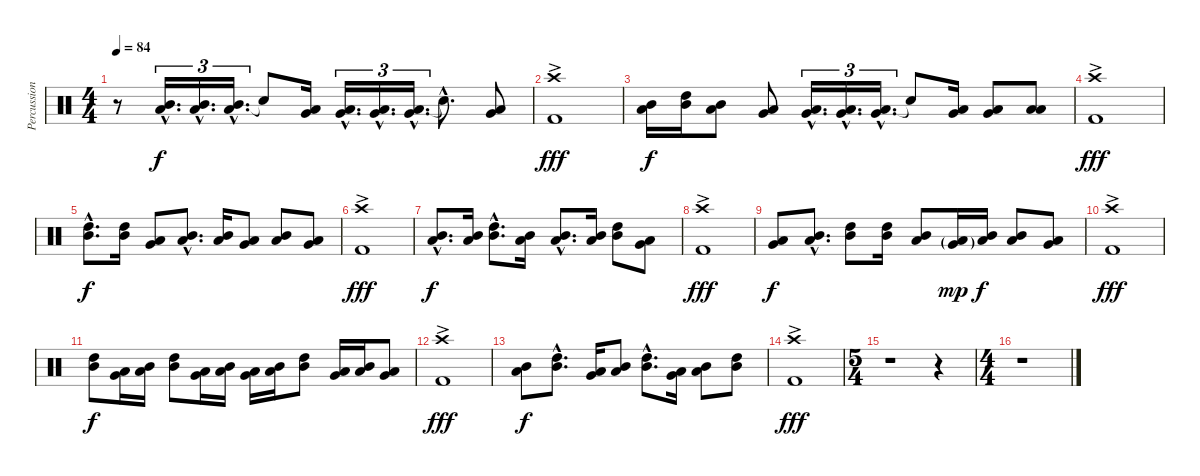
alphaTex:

\track ("Percussion" "Percussion") {instrument percussion}
\staff {score}
\articulation defaults
\ts (4 4)
\tempo 84
\clef neutral
\ks c
r.8{dy fff} ("Mid Tom (hit)" "Low Tom (hit)"{hac}).16{d tu (3 2) dy f} ("Mid Tom (hit)" "Low Tom (hit)"{hac}).16{d tu (3 2)} ("Mid Tom (hit)"{hac} "Low Tom (hit)"{hac}).16{d tu (3 2)} "Snare (hit)"{t}.8 ("Low Tom (hit)" "Very Low Tom (hit)").16 ("Low Tom (hit)"{hac} "Very Low Tom (hit)"{hac}).16{d tu (3 2)} ("Low Tom (hit)"{hac} "Very Low Tom (hit)"{hac}).16{d tu (3 2)} ("Low Tom (hit)"{hac} "Very Low Tom (hit)"{hac}).16{d tu (3 2)} "Snare (hit)"{hac t}.8{d} ("Very Low Tom (hit)" "Low Floor Tom (hit)").8 |
("Crash high (hit)"{ac} "Kick (hit) 2").1{dy fff} |
("Mid Tom (hit)" "Low Tom (hit)").16{dy f} ("High Tom (hit)" "Mid Tom (hit)").16 ("Mid Tom (hit)" "Low Tom (hit)").8 ("Low Tom (hit)" "Very Low Tom (hit)").8 ("Low Tom (hit)"{hac} "Very Low Tom (hit)"{hac}).16{d tu (3 2)} ("Low Tom (hit)"{hac} "Very Low Tom (hit)"{hac}).16{d tu (3 2)} ("Low Tom (hit)"{hac} "Very Low Tom (hit)"{hac}).16{d tu (3 2)} "Snare (hit)"{t}.8 ("Low Tom (hit)" "Very Low Tom (hit)").16 ("Very Low Tom (hit)" "Low Floor Tom (hit)").8 ("Low Floor Tom (hit)" "Low Floor Tom (hit)").8 |
("Crash high (hit)"{ac} "Kick (hit) 2").1{dy fff} |
("High Tom (hit)"{hac} "Mid Tom (hit)"{hac}).8{d dy f} ("High Tom (hit)" "Mid Tom (hit)").16 ("Low Tom (hit)" "Very Low Tom (hit)").8 ("Mid Tom (hit)"{hac} "Low Tom (hit)"{hac}).8{d} ("Mid Tom (hit)" "Low Tom (hit)").16 ("Low Tom (hit)" "Very Low Tom (hit)").8 ("Low Tom (hit)" "Mid Tom (hit)").8 ("Very Low Tom (hit)" "Low Floor Tom (hit)").8 |
("Crash high (hit)"{ac} "Kick (hit) 2").1{dy fff} |
("Mid Tom (hit)"{hac} "Low Tom (hit)"{hac}).8{d dy f} ("Mid Tom (hit)" "Low Tom (hit)").16 ("High Tom (hit)"{hac} "Mid Tom (hit)"{hac}).8{d} ("Mid Tom (hit)" "Low Tom (hit)").16 ("Mid Tom (hit)"{hac} "Low Tom (hit)"{hac}).8{d} ("Mid Tom (hit)" "Low Tom (hit)").16 ("High Tom (hit)" "Mid Tom (hit)").8 ("Low Tom (hit)" "Very Low Tom (hit)").8 |
("Crash high (hit)"{ac} "Kick (hit) 2").1{dy fff} |
("Low Tom (hit)" "Very Low Tom (hit)").8{dy f} ("Mid Tom (hit)"{hac} "Low Tom (hit)"{hac}).8{d} ("Mid Tom (hit)" "High Tom (hit)").8 ("Mid Tom (hit)" "High Tom (hit)").16 ("Mid Tom (hit)" "Low Tom (hit)").8 ("Very Low Tom (hit)"{g} "Low Tom (hit)"{g}).16{dy mp} ("Low Tom (hit)" "Mid Tom (hit)").16{dy f} ("Low Tom (hit)" "Mid Tom (hit)").8 ("Very Low Tom (hit)" "Low Tom (hit)").8 |
("Crash high (hit)"{ac} "Kick (hit) 2").1{dy fff} |
("High Tom (hit)" "Mid Tom (hit)").8{dy f} ("Low Tom (hit)" "Very Low Tom (hit)").16 ("Mid Tom (hit)" "Low Tom (hit)").16 ("High Tom (hit)" "Mid Tom (hit)").8 ("Low Tom (hit)" "Very Low Tom (hit)").16 ("Mid Tom (hit)" "Low Tom (hit)").16 ("Low Tom (hit)" "Very Low Tom (hit)").16 ("Mid Tom (hit)" "Low Tom (hit)").16 ("High Tom (hit)" "Mid Tom (hit)").8 ("Low Tom (hit)" "Very Low Tom (hit)").16 ("Mid Tom (hit)" "Low Tom (hit)").16 ("Very Low Tom (hit)" "Low Floor Tom (hit)").8 |
("Crash high (hit)"{ac} "Kick (hit) 2").1{dy fff} |
("Mid Tom (hit)" "Low Tom (hit)").8{dy f} ("High Tom (hit)"{hac} "Mid Tom (hit)"{hac}).8{d} ("Low Tom (hit)" "Very Low Tom (hit)").16 ("Mid Tom (hit)" "Low Tom (hit)").8 ("High Tom (hit)"{hac} "Mid Tom (hit)"{hac}).8{d} ("Very Low Tom (hit)" "Low Tom (hit)").16 ("Low Tom (hit)" "Mid Tom (hit)").8 ("High Tom (hit)" "Mid Tom (hit)").8 |
("Crash high (hit)"{ac} "Kick (hit) 2").1{dy fff} |
\ts (5 4)
r.1 r.4 |
\ts (4 4)
r.1
